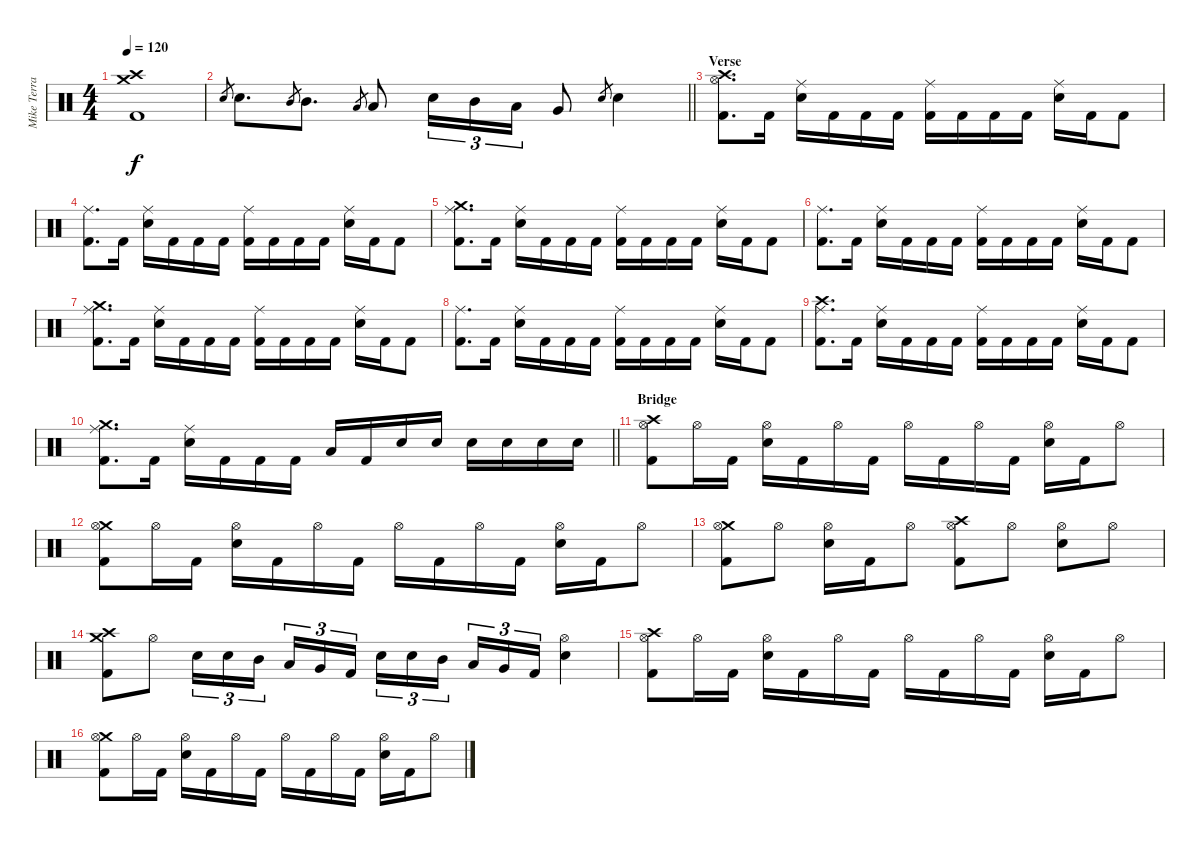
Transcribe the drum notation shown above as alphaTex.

\track ("Mike Terrana" "Mike Terra") {instrument percussion}
\staff {score}
\articulation defaults
\ts (4 4)
\tempo 120
\clef neutral
\ks c
("Crash high (hit)" "Crash medium (hit)" "Kick (hit) 2").1{dy f} |
\barLineRight lightlight "Snare (hit) 2".8{gr} "Snare (hit) 2".8{d} "Mid Tom (hit)".8{gr} "Mid Tom (hit)".8{d} "Low Tom (hit)".8{gr} "Low Tom (hit)".8 "Snare (hit) 2".16{tu (3 2)} "Mid Tom (hit)".16{tu (3 2)} "Low Tom (hit)".16{tu (3 2)} "Very Low Tom (hit)".8 "Snare (hit) 2".8{gr} "Snare (hit) 2".4
|
\section ("" "Verse")
("Crash high (hit)" "Hi-Hat (open)" "Kick (hit) 2").8{d} "Kick (hit) 2".16 ("Ride (middle)" "Snare (hit) 2").16 "Kick (hit) 2".16 "Kick (hit) 2".16 "Kick (hit) 2".16 ("Ride (middle)" "Kick (hit) 2").16 "Kick (hit) 2".16 "Kick (hit) 2".16 "Kick (hit) 2".16 ("Ride (middle)" "Snare (hit) 2").16 "Kick (hit) 2".16 "Kick (hit) 2".8 |
("Ride (middle)" "Kick (hit) 2").8{d} "Kick (hit) 2".16 ("Ride (middle)" "Snare (hit) 2").16 "Kick (hit) 2".16 "Kick (hit) 2".16 "Kick (hit) 2".16 ("Ride (middle)" "Kick (hit) 2").16 "Kick (hit) 2".16 "Kick (hit) 2".16 "Kick (hit) 2".16 ("Ride (middle)" "Snare (hit) 2").16 "Kick (hit) 2".16 "Kick (hit) 2".8 |
("Crash medium (hit)" "Ride (middle)" "Kick (hit) 2").8{d} "Kick (hit) 2".16 ("Ride (middle)" "Snare (hit) 2").16 "Kick (hit) 2".16 "Kick (hit) 2".16 "Kick (hit) 2".16 ("Ride (middle)" "Kick (hit) 2").16 "Kick (hit) 2".16 "Kick (hit) 2".16 "Kick (hit) 2".16 ("Ride (middle)" "Snare (hit) 2").16 "Kick (hit) 2".16 "Kick (hit) 2".8 |
("Ride (middle)" "Kick (hit) 2").8{d} "Kick (hit) 2".16 ("Ride (middle)" "Snare (hit) 2").16 "Kick (hit) 2".16 "Kick (hit) 2".16 "Kick (hit) 2".16 ("Ride (middle)" "Kick (hit) 2").16 "Kick (hit) 2".16 "Kick (hit) 2".16 "Kick (hit) 2".16 ("Ride (middle)" "Snare (hit) 2").16 "Kick (hit) 2".16 "Kick (hit) 2".8 |
("Crash medium (hit)" "Ride (middle)" "Kick (hit) 2").8{d} "Kick (hit) 2".16 ("Ride (middle)" "Snare (hit) 2").16 "Kick (hit) 2".16 "Kick (hit) 2".16 "Kick (hit) 2".16 ("Ride (middle)" "Kick (hit) 2").16 "Kick (hit) 2".16 "Kick (hit) 2".16 "Kick (hit) 2".16 ("Ride (middle)" "Snare (hit) 2").16 "Kick (hit) 2".16 "Kick (hit) 2".8 |
("Ride (middle)" "Kick (hit) 2").8{d} "Kick (hit) 2".16 ("Ride (middle)" "Snare (hit) 2").16 "Kick (hit) 2".16 "Kick (hit) 2".16 "Kick (hit) 2".16 ("Ride (middle)" "Kick (hit) 2").16 "Kick (hit) 2".16 "Kick (hit) 2".16 "Kick (hit) 2".16 ("Ride (middle)" "Snare (hit) 2").16 "Kick (hit) 2".16 "Kick (hit) 2".8 |
("Crash high (hit)" "Ride (middle)" "Kick (hit) 2").8{d} "Kick (hit) 2".16 ("Ride (middle)" "Snare (hit) 2").16 "Kick (hit) 2".16 "Kick (hit) 2".16 "Kick (hit) 2".16 ("Ride (middle)" "Kick (hit) 2").16 "Kick (hit) 2".16 "Kick (hit) 2".16 "Kick (hit) 2".16 ("Ride (middle)" "Snare (hit) 2").16 "Kick (hit) 2".16 "Kick (hit) 2".8 |
\barLineRight lightlight
("Crash medium (hit)" "Ride (middle)" "Kick (hit) 2").8{d} "Kick (hit) 2".16 ("Ride (middle)" "Snare (hit) 2").16 "Kick (hit) 2".16 "Kick (hit) 2".16 "Kick (hit) 2".16 "Low Tom (hit)".16 "Kick (hit) 2".16 "Snare (hit) 2".16 "Snare (hit) 2".16 "Snare (hit) 2".16 "Snare (hit) 2".16 "Snare (hit) 2".16 "Snare (hit) 2".16 |
\section ("" "Bridge")
("Crash high (hit)" "Hi-Hat (open)" "Kick (hit) 2").8 "Hi-Hat (open)".16 "Kick (hit) 2".16 ("Hi-Hat (open)" "Snare (hit) 2").16 "Kick (hit) 2".16 "Hi-Hat (open)".16 "Kick (hit) 2".16 "Hi-Hat (open)".16 "Kick (hit) 2".16 "Hi-Hat (open)".16 "Kick (hit) 2".16 ("Hi-Hat (open)" "Snare (hit) 2").16 "Kick (hit) 2".16 "Hi-Hat (open)".8 |
("Crash medium (hit)" "Hi-Hat (open)" "Kick (hit) 2").8 "Hi-Hat (open)".16 "Kick (hit) 2".16 ("Hi-Hat (open)" "Snare (hit) 2").16 "Kick (hit) 2".16 "Hi-Hat (open)".16 "Kick (hit) 2".16 "Hi-Hat (open)".16 "Kick (hit) 2".16 "Hi-Hat (open)".16 "Kick (hit) 2".16 ("Hi-Hat (open)" "Snare (hit) 2").16 "Kick (hit) 2".16 "Hi-Hat (open)".8 |
("Crash medium (hit)" "Hi-Hat (open)" "Kick (hit) 2").8 "Hi-Hat (open)".8 ("Hi-Hat (open)" "Snare (hit) 2").16 "Kick (hit) 2".16 "Hi-Hat (open)".8 ("Crash high (hit)" "Hi-Hat (open)" "Kick (hit) 2").8 "Hi-Hat (open)".8 ("Hi-Hat (open)" "Snare (hit) 2").8 "Hi-Hat (open)".8 |
("Crash high (hit)" "Crash medium (hit)" "Kick (hit) 2").8 "Hi-Hat (open)".8 "Snare (hit) 2".16{tu (3 2)} "Snare (hit) 2".16{tu (3 2)} "Mid Tom (hit)".16{tu (3 2) beam splitsecondary} "Low Tom (hit)".16{tu (3 2)} "Very Low Tom (hit)".16{tu (3 2)} "Kick (hit) 2".16{tu (3 2)} "Snare (hit) 2".16{tu (3 2)} "Snare (hit) 2".16{tu (3 2)} "Mid Tom (hit)".16{tu (3 2) beam splitsecondary} "Low Tom (hit)".16{tu (3 2)} "Very Low Tom (hit)".16{tu (3 2)} "Kick (hit) 2".16{tu (3 2)} ("Hi-Hat (open)" "Snare (hit) 2").4 |
("Crash high (hit)" "Hi-Hat (open)" "Kick (hit) 2").8 "Hi-Hat (open)".16 "Kick (hit) 2".16 ("Hi-Hat (open)" "Snare (hit) 2").16 "Kick (hit) 2".16 "Hi-Hat (open)".16 "Kick (hit) 2".16 "Hi-Hat (open)".16 "Kick (hit) 2".16 "Hi-Hat (open)".16 "Kick (hit) 2".16 ("Hi-Hat (open)" "Snare (hit) 2").16 "Kick (hit) 2".16 "Hi-Hat (open)".8 |
("Crash medium (hit)" "Hi-Hat (open)" "Kick (hit) 2").8 "Hi-Hat (open)".16 "Kick (hit) 2".16 ("Hi-Hat (open)" "Snare (hit) 2").16 "Kick (hit) 2".16 "Hi-Hat (open)".16 "Kick (hit) 2".16 "Hi-Hat (open)".16 "Kick (hit) 2".16 "Hi-Hat (open)".16 "Kick (hit) 2".16 ("Hi-Hat (open)" "Snare (hit) 2").16 "Kick (hit) 2".16 "Hi-Hat (open)".8
